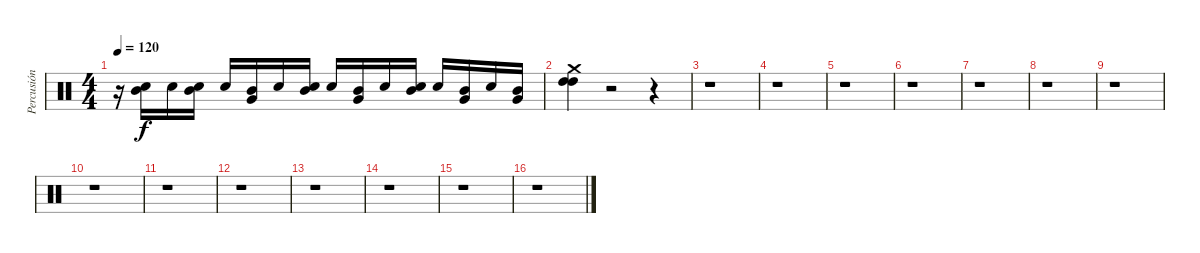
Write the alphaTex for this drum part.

\track ("Percusión" "Percusión") {instrument percussion}
\staff {score}
\articulation defaults
\ts (4 4)
\tempo 120
\clef neutral
\ks c
r.16{dy f} ("Snare (hit) 2" "Mid Tom (hit)").16 "Snare (hit) 2".16 ("Snare (hit) 2" "Mid Tom (hit)").16 "Snare (hit) 2".16 ("Very Low Tom (hit)" "Mid Tom (hit)").16 "Snare (hit) 2".16 ("Snare (hit) 2" "Mid Tom (hit)").16 "Snare (hit) 2".16 ("Very Low Tom (hit)" "Mid Tom (hit)").16 "Snare (hit) 2".16 ("Snare (hit) 2" "Mid Tom (hit)").16 "Snare (hit) 2".16 ("Very Low Tom (hit)" "Mid Tom (hit)").16 "Snare (hit) 2".16 ("Very Low Tom (hit)" "Mid Tom (hit)").16 |
("Crash medium (hit)" "High Tom (hit)" "High Tom (hit)").4 r.2 r.4 |
r.1 |
r.1 |
r.1 |
r.1 |
r.1 |
r.1 |
r.1 |
r.1 |
r.1 |
r.1 |
r.1 |
r.1 |
r.1 |
r.1
